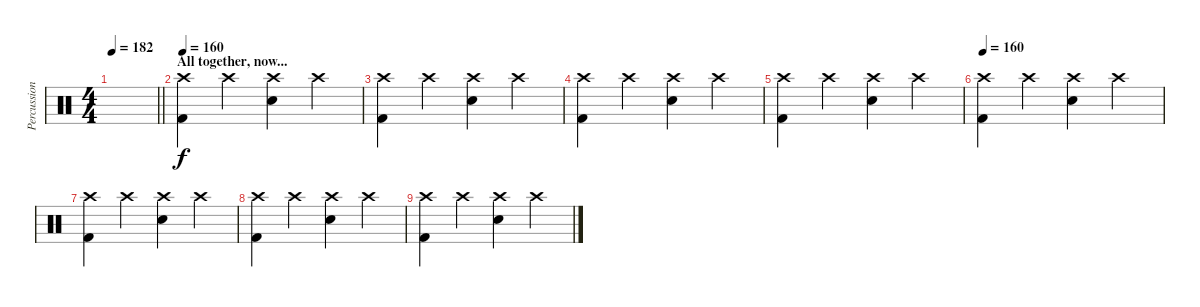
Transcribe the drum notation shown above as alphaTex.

\track ("Percussion" "Percussion") {instrument percussion}
\staff {score}
\articulation defaults
\ts (4 4)
\tempo 182
\clef neutral
\barLineRight lightlight
\ks c
|
\section ("" "All together, now...")
\tempo 160
("Crash high (hit)" "Kick (hit) 2").4 "Crash high (hit)".4 ("Crash high (hit)" "Electric Snare (hit)").4 "Crash high (hit)".4 |
("Crash high (hit)" "Kick (hit) 2").4 "Crash high (hit)".4 ("Crash high (hit)" "Electric Snare (hit)").4 "Crash high (hit)".4 |
("Crash high (hit)" "Kick (hit) 2").4 "Crash high (hit)".4 ("Crash high (hit)" "Electric Snare (hit)").4 "Crash high (hit)".4 |
("Crash high (hit)" "Kick (hit) 2").4 "Crash high (hit)".4 ("Crash high (hit)" "Electric Snare (hit)").4 "Crash high (hit)".4 |
\tempo 160
("Crash high (hit)" "Kick (hit) 2").4 "Crash high (hit)".4 ("Crash high (hit)" "Electric Snare (hit)").4 "Crash high (hit)".4 |
("Crash high (hit)" "Kick (hit) 2").4 "Crash high (hit)".4 ("Crash high (hit)" "Electric Snare (hit)").4 "Crash high (hit)".4 |
("Crash high (hit)" "Kick (hit) 2").4 "Crash high (hit)".4 ("Crash high (hit)" "Electric Snare (hit)").4 "Crash high (hit)".4 |
("Crash high (hit)" "Kick (hit) 2").4 "Crash high (hit)".4 ("Crash high (hit)" "Electric Snare (hit)").4 "Crash high (hit)".4
